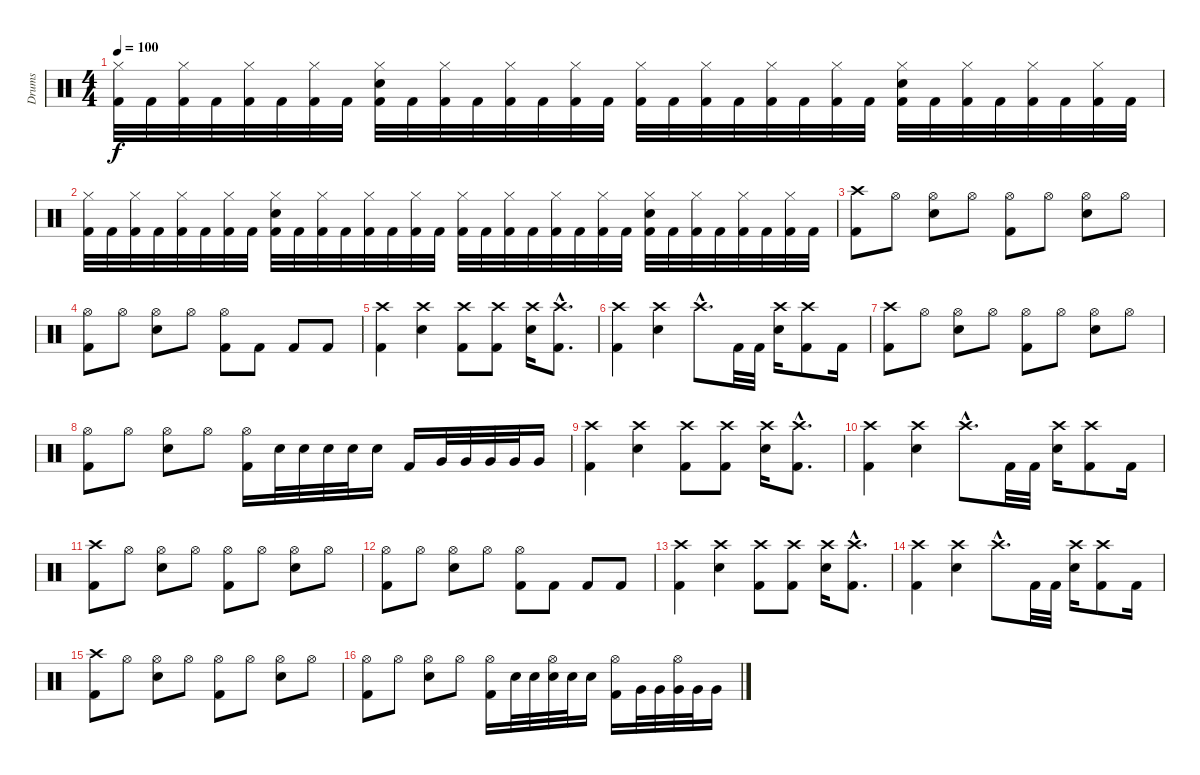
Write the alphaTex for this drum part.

\track ("Drums" "Drums") {instrument percussion}
\staff {score}
\articulation defaults
\ts (4 4)
\tempo 100
\clef neutral
\ks c
("Hi-Hat (closed)" "Kick (hit) 2").32{dy f} "Kick (hit) 2".32 ("Hi-Hat (closed)" "Kick (hit) 2").32 "Kick (hit) 2".32 ("Hi-Hat (closed)" "Kick (hit) 2").32 "Kick (hit) 2".32 ("Hi-Hat (closed)" "Kick (hit) 2").32 "Kick (hit) 2".32 ("Hi-Hat (closed)" "Electric Snare (hit)" "Kick (hit) 2").32 "Kick (hit) 2".32 ("Hi-Hat (closed)" "Kick (hit) 2").32 "Kick (hit) 2".32 ("Hi-Hat (closed)" "Kick (hit) 2").32 "Kick (hit) 2".32 ("Hi-Hat (closed)" "Kick (hit) 2").32 "Kick (hit) 2".32 ("Hi-Hat (closed)" "Kick (hit) 2").32 "Kick (hit) 2".32 ("Hi-Hat (closed)" "Kick (hit) 2").32 "Kick (hit) 2".32 ("Hi-Hat (closed)" "Kick (hit) 2").32 "Kick (hit) 2".32 ("Hi-Hat (closed)" "Kick (hit) 2").32 "Kick (hit) 2".32 ("Hi-Hat (closed)" "Electric Snare (hit)" "Kick (hit) 2").32 "Kick (hit) 2".32 ("Hi-Hat (closed)" "Kick (hit) 2").32 "Kick (hit) 2".32 ("Hi-Hat (closed)" "Kick (hit) 2").32 "Kick (hit) 2".32 ("Hi-Hat (closed)" "Kick (hit) 2").32 "Kick (hit) 2".32 |
("Hi-Hat (closed)" "Kick (hit) 2").32 "Kick (hit) 2".32 ("Hi-Hat (closed)" "Kick (hit) 2").32 "Kick (hit) 2".32 ("Hi-Hat (closed)" "Kick (hit) 2").32 "Kick (hit) 2".32 ("Hi-Hat (closed)" "Kick (hit) 2").32 "Kick (hit) 2".32 ("Hi-Hat (closed)" "Electric Snare (hit)" "Kick (hit) 2").32 "Kick (hit) 2".32 ("Hi-Hat (closed)" "Kick (hit) 2").32 "Kick (hit) 2".32 ("Hi-Hat (closed)" "Kick (hit) 2").32 "Kick (hit) 2".32 ("Hi-Hat (closed)" "Kick (hit) 2").32 "Kick (hit) 2".32 ("Hi-Hat (closed)" "Kick (hit) 2").32 "Kick (hit) 2".32 ("Hi-Hat (closed)" "Kick (hit) 2").32 "Kick (hit) 2".32 ("Hi-Hat (closed)" "Kick (hit) 2").32 "Kick (hit) 2".32 ("Hi-Hat (closed)" "Kick (hit) 2").32 "Kick (hit) 2".32 ("Hi-Hat (closed)" "Electric Snare (hit)" "Kick (hit) 2").32 "Kick (hit) 2".32 ("Hi-Hat (closed)" "Kick (hit) 2").32 "Kick (hit) 2".32 ("Hi-Hat (closed)" "Kick (hit) 2").32 "Kick (hit) 2".32 ("Hi-Hat (closed)" "Kick (hit) 2").32 "Kick (hit) 2".32 |
("Crash high (hit)" "Kick (hit) 2").8 "Hi-Hat (open)".8 ("Hi-Hat (open)" "Electric Snare (hit)").8 "Hi-Hat (open)".8 ("Hi-Hat (open)" "Kick (hit) 2").8 "Hi-Hat (open)".8 ("Hi-Hat (open)" "Electric Snare (hit)").8 "Hi-Hat (open)".8 |
("Hi-Hat (open)" "Kick (hit) 2").8 "Hi-Hat (open)".8 ("Hi-Hat (open)" "Electric Snare (hit)").8 "Hi-Hat (open)".8 ("Hi-Hat (open)" "Kick (hit) 2").8 "Kick (hit) 2".8 "Kick (hit) 2".8 "Kick (hit) 2".8 |
("Crash high (hit)" "Kick (hit) 2").4 ("Crash high (hit)" "Electric Snare (hit)").4 ("Crash high (hit)" "Kick (hit) 2").8 ("Crash high (hit)" "Kick (hit) 2").8 ("Crash high (hit)" "Electric Snare (hit)").16 ("Crash high (hit)"{hac} "Kick (hit) 2"{hac}).8{d} |
("Crash high (hit)" "Kick (hit) 2").4 ("Crash high (hit)" "Electric Snare (hit)").4 "Crash high (hit)"{hac}.8{d} "Kick (hit) 2".32 "Kick (hit) 2".32 ("Crash high (hit)" "Electric Snare (hit)").16 ("Crash high (hit)" "Kick (hit) 2").8 "Kick (hit) 2".16 |
("Crash high (hit)" "Kick (hit) 2").8 "Hi-Hat (open)".8 ("Hi-Hat (open)" "Electric Snare (hit)").8 "Hi-Hat (open)".8 ("Hi-Hat (open)" "Kick (hit) 2").8 "Hi-Hat (open)".8 ("Hi-Hat (open)" "Electric Snare (hit)").8 "Hi-Hat (open)".8 |
("Hi-Hat (open)" "Kick (hit) 2").8 "Hi-Hat (open)".8 ("Hi-Hat (open)" "Electric Snare (hit)").8 "Hi-Hat (open)".8 ("Hi-Hat (open)" "Kick (hit) 2").16 "Electric Snare (hit)".32 "Electric Snare (hit)".32 "Electric Snare (hit)".32 "Electric Snare (hit)".32 "Electric Snare (hit)".16 "Kick (hit) 2".16 "Very Low Tom (hit)".32 "Very Low Tom (hit)".32 "Very Low Tom (hit)".32 "Very Low Tom (hit)".32 "Very Low Tom (hit)".16 |
("Crash high (hit)" "Kick (hit) 2").4 ("Crash high (hit)" "Electric Snare (hit)").4 ("Crash high (hit)" "Kick (hit) 2").8 ("Crash high (hit)" "Kick (hit) 2").8 ("Crash high (hit)" "Electric Snare (hit)").16 ("Crash high (hit)"{hac} "Kick (hit) 2"{hac}).8{d} |
("Crash high (hit)" "Kick (hit) 2").4 ("Crash high (hit)" "Electric Snare (hit)").4 "Crash high (hit)"{hac}.8{d} "Kick (hit) 2".32 "Kick (hit) 2".32 ("Crash high (hit)" "Electric Snare (hit)").16 ("Crash high (hit)" "Kick (hit) 2").8 "Kick (hit) 2".16 |
("Crash high (hit)" "Kick (hit) 2").8 "Hi-Hat (open)".8 ("Hi-Hat (open)" "Electric Snare (hit)").8 "Hi-Hat (open)".8 ("Hi-Hat (open)" "Kick (hit) 2").8 "Hi-Hat (open)".8 ("Hi-Hat (open)" "Electric Snare (hit)").8 "Hi-Hat (open)".8 |
("Hi-Hat (open)" "Kick (hit) 2").8 "Hi-Hat (open)".8 ("Hi-Hat (open)" "Electric Snare (hit)").8 "Hi-Hat (open)".8 ("Hi-Hat (open)" "Kick (hit) 2").8 "Kick (hit) 2".8 "Kick (hit) 2".8 "Kick (hit) 2".8 |
("Crash high (hit)" "Kick (hit) 2").4 ("Crash high (hit)" "Electric Snare (hit)").4 ("Crash high (hit)" "Kick (hit) 2").8 ("Crash high (hit)" "Kick (hit) 2").8 ("Crash high (hit)" "Electric Snare (hit)").16 ("Crash high (hit)"{hac} "Kick (hit) 2"{hac}).8{d} |
("Crash high (hit)" "Kick (hit) 2").4 ("Crash high (hit)" "Electric Snare (hit)").4 "Crash high (hit)"{hac}.8{d} "Kick (hit) 2".32 "Kick (hit) 2".32 ("Crash high (hit)" "Electric Snare (hit)").16 ("Crash high (hit)" "Kick (hit) 2").8 "Kick (hit) 2".16 |
("Crash high (hit)" "Kick (hit) 2").8 "Hi-Hat (open)".8 ("Hi-Hat (open)" "Electric Snare (hit)").8 "Hi-Hat (open)".8 ("Hi-Hat (open)" "Kick (hit) 2").8 "Hi-Hat (open)".8 ("Hi-Hat (open)" "Electric Snare (hit)").8 "Hi-Hat (open)".8 |
("Hi-Hat (open)" "Kick (hit) 2").8 "Hi-Hat (open)".8 ("Hi-Hat (open)" "Electric Snare (hit)").8 "Hi-Hat (open)".8 ("Hi-Hat (open)" "Kick (hit) 2").16 "Electric Snare (hit)".32 "Electric Snare (hit)".32 ("Hi-Hat (open)" "Electric Snare (hit)").32 "Electric Snare (hit)".32 "Electric Snare (hit)".16 ("Hi-Hat (open)" "Kick (hit) 2").16 "Very Low Tom (hit)".32 "Very Low Tom (hit)".32 ("Hi-Hat (open)" "Very Low Tom (hit)").32 "Very Low Tom (hit)".32 "Very Low Tom (hit)".16
